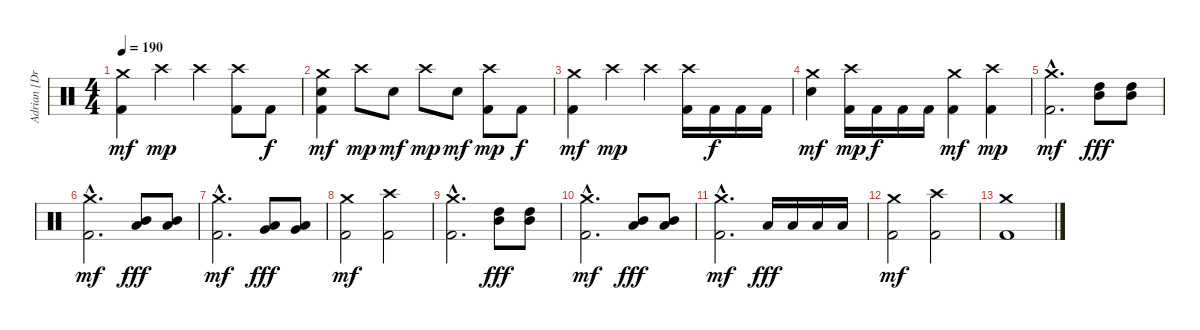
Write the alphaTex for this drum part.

\track ("Adrian [Drums]" "Adrian [Dr") {instrument percussion}
\staff {score}
\articulation defaults
\ts (4 4)
\tempo 190
\clef neutral
\ks c
("Crash medium (hit)" "Kick (hit) 2").4{dy mf} "Crash high (hit)".4{dy mp} "Crash high (hit)".4 ("Crash high (hit)" "Kick (hit) 2").8 "Kick (hit) 2".8{dy f} |
("Crash medium (hit)" "Electric Snare (hit)" "Kick (hit) 2").4{dy mf} "Crash high (hit)".8{dy mp} "Electric Snare (hit)".8{dy mf} "Crash high (hit)".8{dy mp} "Electric Snare (hit)".8{dy mf} ("Crash high (hit)" "Kick (hit) 2").8{dy mp} "Kick (hit) 2".8{dy f} |
("Crash medium (hit)" "Kick (hit) 2").4{dy mf} "Crash high (hit)".4{dy mp} "Crash high (hit)".4 ("Crash high (hit)" "Kick (hit) 2").16 "Kick (hit) 2".16{dy f} "Kick (hit) 2".16 "Kick (hit) 2".16 |
("Crash medium (hit)" "Electric Snare (hit)").4{dy mf} ("Crash high (hit)" "Kick (hit) 2").16{dy mp} "Kick (hit) 2".16{dy f} "Kick (hit) 2".16 "Kick (hit) 2".16 ("Crash medium (hit)" "Kick (hit) 2").4{dy mf} ("Crash high (hit)" "Kick (hit) 2").4{dy mp} |
("Crash medium (hit)"{hac} "Kick (hit) 2"{hac}).2{d dy mf} ("High Tom (hit)" "Mid Tom (hit)").8{dy fff} ("High Tom (hit)" "Mid Tom (hit)").8 |
("Crash medium (hit)"{hac} "Kick (hit) 2"{hac}).2{d dy mf} ("Mid Tom (hit)" "Low Tom (hit)").8{dy fff} ("Mid Tom (hit)" "Low Tom (hit)").8 |
("Crash medium (hit)"{hac} "Kick (hit) 2"{hac}).2{d dy mf} ("Low Tom (hit)" "Very Low Tom (hit)").8{dy fff} ("Low Tom (hit)" "Very Low Tom (hit)").8 |
("Crash medium (hit)" "Kick (hit) 2").2{dy mf} ("Crash high (hit)" "Kick (hit) 2").2 |
("Crash medium (hit)"{hac} "Kick (hit) 2"{hac}).2{d} ("High Tom (hit)" "Mid Tom (hit)").8{dy fff} ("High Tom (hit)" "Mid Tom (hit)").8 |
("Crash medium (hit)"{hac} "Kick (hit) 2"{hac}).2{d dy mf} ("Mid Tom (hit)" "Low Tom (hit)").8{dy fff} ("Mid Tom (hit)" "Low Tom (hit)").8 |
("Crash medium (hit)"{hac} "Kick (hit) 2"{hac}).2{d dy mf} "Low Tom (hit)".16{dy fff} "Low Tom (hit)".16 "Low Tom (hit)".16 "Low Tom (hit)".16 |
("Crash medium (hit)" "Kick (hit) 2").2{dy mf} ("Crash high (hit)" "Kick (hit) 2").2 |
("Crash medium (hit)" "Kick (hit) 2").1
